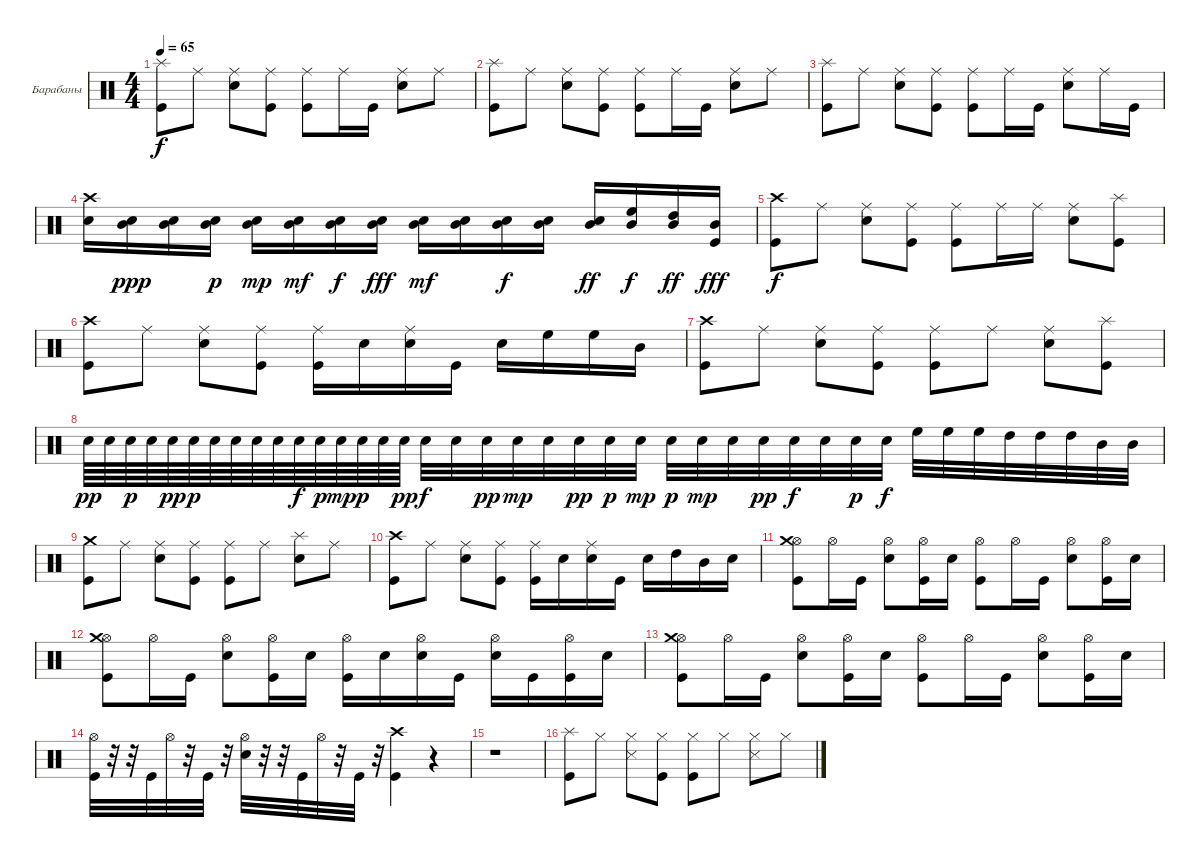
\bracketExtendMode groupsimilarinstruments
\firstSystemTrackNameOrientation horizontal
\otherSystemsTrackNameOrientation horizontal
\track ("Ударные" "Барабаны") {instrument percussion}
\staff {score}
\articulation defaults
\ts (4 4)
\tempo 65
\clef neutral
\ks c
("Splash (hit)" "Kick (hit)").8{dy f} "Ride (middle)".8 ("Ride (middle)" "Snare (hit) 2").8 ("Ride (middle)" "Kick (hit)").8 ("Ride (middle)" "Kick (hit)").8 "Ride (middle)".16 "Kick (hit)".16 ("Ride (middle)" "Snare (hit) 2").8 "Ride (middle)".8 |
("Splash (hit)" "Kick (hit)").8 "Ride (middle)".8 ("Ride (middle)" "Snare (hit) 2").8 ("Ride (middle)" "Kick (hit)").8 ("Ride (middle)" "Kick (hit)").8 "Ride (middle)".16 "Kick (hit)".16 ("Ride (middle)" "Snare (hit) 2").8 "Ride (middle)".8 |
("Splash (hit)" "Kick (hit)").8 "Ride (middle)".8 ("Ride (middle)" "Snare (hit) 2").8 ("Ride (middle)" "Kick (hit)").8 ("Ride (middle)" "Kick (hit)").8 "Ride (middle)".16 "Kick (hit)".16 ("Ride (middle)" "Snare (hit) 2").8 "Ride (middle)".16 "Kick (hit)".16 |
("Crash high (hit)" "Snare (hit) 2").16 ("Snare (hit) 2" "Mid Tom (hit)").16{dy ppp} ("Snare (hit) 2" "Mid Tom (hit)").16 ("Snare (hit) 2" "Mid Tom (hit)").16{dy p} ("Snare (hit) 2" "Mid Tom (hit)").16{dy mp} ("Snare (hit) 2" "Mid Tom (hit)").16{dy mf} ("Snare (hit) 2" "Mid Tom (hit)").16{dy f} ("Snare (hit) 2" "Mid Tom (hit)").16{dy fff} ("Snare (hit) 2" "Mid Tom (hit)").16{dy mf} ("Snare (hit) 2" "Mid Tom (hit)").16 ("Snare (hit) 2" "Mid Tom (hit)").16{dy f} ("Snare (hit) 2" "Mid Tom (hit)").16 ("Snare (hit) 2" "Mid Tom (hit)").16{dy ff} ("High Floor Tom (hit)" "Mid Tom (hit)").16{dy f} ("High Tom (hit)" "Mid Tom (hit)").16{dy ff} ("Mid Tom (hit)" "Kick (hit)").16{dy fff} |
("Crash high (hit)" "Kick (hit)").8{dy f} "Ride (middle)".8 ("Ride (middle)" "Snare (hit) 2").8 ("Ride (middle)" "Kick (hit)").8 ("Ride (middle)" "Kick (hit)").8 "Ride (middle)".16 "Ride (middle)".16 ("Ride (middle)" "Snare (hit) 2").8 ("Splash (hit)" "Kick (hit)").8 |
("Crash high (hit)" "Kick (hit)").8 "Ride (middle)".8 ("Ride (middle)" "Snare (hit) 2").8 ("Ride (middle)" "Kick (hit)").8 ("Ride (middle)" "Kick (hit)").16 "Snare (hit) 2".16 ("Ride (middle)" "Snare (hit) 2").16 "Kick (hit)".16 "Snare (hit) 2".16 "High Floor Tom (hit)".16 "High Floor Tom (hit)".16 "Mid Tom (hit)".16 |
("Crash high (hit)" "Kick (hit)").8 "Ride (middle)".8 ("Ride (middle)" "Snare (hit) 2").8 ("Ride (middle)" "Kick (hit)").8 ("Ride (middle)" "Kick (hit)").8 "Ride (middle)".8 ("Ride (middle)" "Snare (hit) 2").8 ("Splash (hit)" "Kick (hit)").8 |
"Snare (hit) 2".64{dy pp} "Snare (hit) 2".64 "Snare (hit) 2".64{dy p} "Snare (hit) 2".64 "Snare (hit) 2".64{dy pp} "Snare (hit) 2".64{dy p} "Snare (hit) 2".64 "Snare (hit) 2".64 "Snare (hit) 2".64 "Snare (hit) 2".64 "Snare (hit) 2".64{dy f} "Snare (hit) 2".64{dy p} "Snare (hit) 2".64{dy mp} "Snare (hit) 2".64{dy p} "Snare (hit) 2".64 "Snare (hit) 2".64{dy pp} "Snare (hit) 2".32{dy f} "Snare (hit) 2".32 "Snare (hit) 2".32{dy pp} "Snare (hit) 2".32{dy mp} "Snare (hit) 2".32 "Snare (hit) 2".32{dy pp} "Snare (hit) 2".32{dy p} "Snare (hit) 2".32{dy mp} "Snare (hit) 2".32{dy p} "Snare (hit) 2".32{dy mp} "Snare (hit) 2".32 "Snare (hit) 2".32{dy pp} "Snare (hit) 2".32{dy f} "Snare (hit) 2".32 "Snare (hit) 2".32{dy p} "Snare (hit) 2".32{dy f} "High Floor Tom (hit)".32 "High Floor Tom (hit)".32 "High Floor Tom (hit)".32 "High Tom (hit)".32 "High Tom (hit)".32 "High Tom (hit)".32 "Mid Tom (hit)".32 "Mid Tom (hit)".32 |
("Crash medium (hit)" "Kick (hit)").8 "Ride (middle)".8 ("Ride (middle)" "Snare (hit) 2").8 ("Ride (middle)" "Kick (hit)").8 ("Ride (middle)" "Kick (hit)").8 "Ride (middle)".8 ("Splash (hit)" "Snare (hit) 2").8 "Ride (middle)".8 |
("Crash high (hit)" "Kick (hit)").8 "Ride (middle)".8 ("Ride (middle)" "Snare (hit) 2").8 ("Ride (middle)" "Kick (hit)").8 ("Ride (middle)" "Kick (hit)").16 "Snare (hit) 2".16 ("Ride (middle)" "Snare (hit) 2").16 "Kick (hit)".16 "Snare (hit) 2".16 "High Tom (hit)".16 "Mid Tom (hit)".16 "Snare (hit) 2".16 |
("Hi-Hat (open)" "Crash medium (hit)" "Kick (hit)").8 "Hi-Hat (open)".16 "Kick (hit)".16 ("Hi-Hat (open)" "Snare (hit) 2").8 ("Hi-Hat (open)" "Kick (hit)").16 "Snare (hit) 2".16 ("Hi-Hat (open)" "Kick (hit)").8 "Hi-Hat (open)".16 "Kick (hit)".16 ("Hi-Hat (open)" "Snare (hit) 2").8 ("Hi-Hat (open)" "Kick (hit)").16 "Snare (hit) 2".16 |
("Hi-Hat (open)" "Crash medium (hit)" "Kick (hit)").8 "Hi-Hat (open)".16 "Kick (hit)".16 ("Hi-Hat (open)" "Snare (hit) 2").8 ("Hi-Hat (open)" "Kick (hit)").16 "Snare (hit) 2".16 ("Hi-Hat (open)" "Kick (hit)").16 "Snare (hit) 2".16 ("Hi-Hat (open)" "Snare (hit) 2").16 "Kick (hit)".16 ("Hi-Hat (open)" "Snare (hit) 2").16 "Kick (hit)".16 ("Hi-Hat (open)" "Kick (hit)").16 "Snare (hit) 2".16 |
("Hi-Hat (open)" "Crash medium (hit)" "Kick (hit)").8 "Hi-Hat (open)".16 "Kick (hit)".16 ("Hi-Hat (open)" "Snare (hit) 2").8 ("Hi-Hat (open)" "Kick (hit)").16 "Snare (hit) 2".16 ("Hi-Hat (open)" "Kick (hit)").8 "Hi-Hat (open)".16 "Kick (hit)".16 ("Hi-Hat (open)" "Snare (hit) 2").8 ("Hi-Hat (open)" "Kick (hit)").16 "Snare (hit) 2".16 |
("Hi-Hat (open)" "Kick (hit)").32 r.32 r.32 "Kick (hit)".32 "Hi-Hat (open)".32 r.32 "Kick (hit)".32 r.32 ("Hi-Hat (open)" "Snare (hit) 2").32 r.32 r.32 "Kick (hit)".32 "Hi-Hat (open)".32 r.32 "Kick (hit)".32 r.32 ("Crash high (hit)" "Kick (hit)").4 r.4 |
r.1 |
("Splash (hit)" "Kick (hit)").8 "Hi-Hat (closed)".8 ("Hi-Hat (closed)" "Snare (side stick) 3").8 ("Hi-Hat (closed)" "Kick (hit)").8 ("Hi-Hat (closed)" "Kick (hit)").8 "Hi-Hat (closed)".8 ("Hi-Hat (closed)" "Snare (side stick) 3").8 "Hi-Hat (closed)".8
